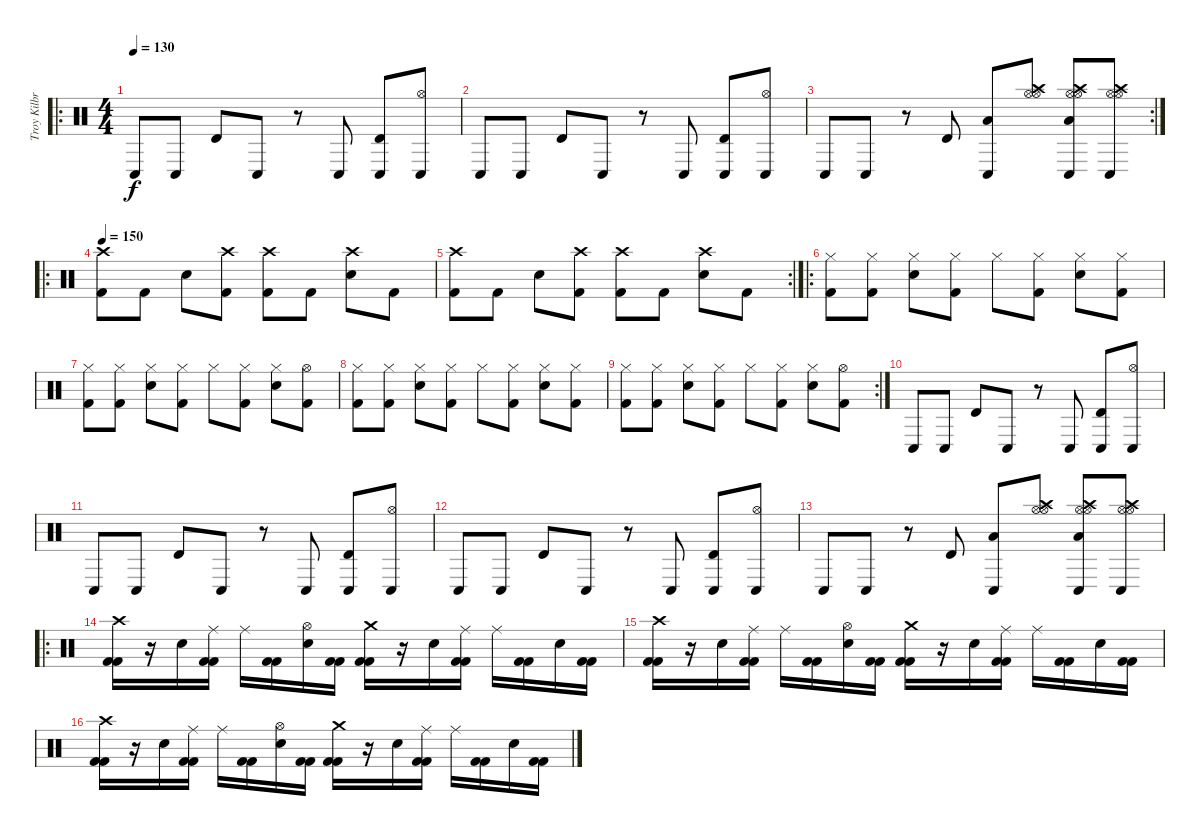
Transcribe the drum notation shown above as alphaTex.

\track ("Troy Kilbride" "Troy Kilbr") {instrument percussion}
\staff {score}
\articulation defaults
\ro
\ts (4 4)
\tempo 130
\clef neutral
\ks c "Conga low (hit)".8{dy f} "Conga low (hit)".8 "Timbale high (hit)".8 "Conga low (hit)".8
r.8 "Conga low (hit)".8 ("Conga low (hit)" "Timbale high (hit)").8 ("Conga low (hit)" "Hi-Hat (open)").8 |
"Conga low (hit)".8 "Conga low (hit)".8 "Timbale high (hit)".8 "Conga low (hit)".8 r.8 "Conga low (hit)".8 ("Conga low (hit)" "Timbale high (hit)").8 ("Conga low (hit)" "Hi-Hat (open)").8 |
\rc 2 "Conga low (hit)".8 "Conga low (hit)".8
r.8 "Timbale high (hit)".8 ("Conga low (hit)" "Low Tom (hit)").8 ("Hi-Hat (open)" "Crash high (hit)" "Hi-Hat (open)").8 ("Conga low (hit)" "Low Tom (hit)" "Crash high (hit)" "Hi-Hat (open)" "Hi-Hat (open)").8 ("Conga low (hit)" "Crash high (hit)" "Hi-Hat (open)" "Hi-Hat (open)").8 |
\ro
\tempo 150
("Kick (hit) 2" "Crash high (hit)").8 "Kick (hit) 2".8 "Snare (hit) 2".8 ("Kick (hit) 2" "Crash high (hit)").8 ("Kick (hit) 2" "Crash high (hit)").8 "Kick (hit) 2".8 ("Snare (hit) 2" "Crash high (hit)").8 "Kick (hit) 2".8 |
\rc 2
("Kick (hit) 2" "Crash high (hit)").8 "Kick (hit) 2".8 "Snare (hit) 2".8 ("Kick (hit) 2" "Crash high (hit)").8 ("Kick (hit) 2" "Crash high (hit)").8 "Kick (hit) 2".8 ("Snare (hit) 2" "Crash high (hit)").8 "Kick (hit) 2".8 |
\ro
("Kick (hit) 2" "Hi-Hat (closed)").8 ("Kick (hit) 2" "Hi-Hat (closed)").8 ("Snare (hit) 2" "Hi-Hat (closed)").8 ("Kick (hit) 2" "Hi-Hat (closed)").8 "Hi-Hat (closed)".8 ("Kick (hit) 2" "Hi-Hat (closed)").8 ("Snare (hit) 2" "Hi-Hat (closed)").8 ("Kick (hit) 2" "Hi-Hat (closed)").8 |
("Kick (hit) 2" "Hi-Hat (closed)").8 ("Kick (hit) 2" "Hi-Hat (closed)").8 ("Snare (hit) 2" "Hi-Hat (closed)").8 ("Kick (hit) 2" "Hi-Hat (closed)").8 "Hi-Hat (closed)".8 ("Kick (hit) 2" "Hi-Hat (closed)").8 ("Snare (hit) 2" "Hi-Hat (closed)").8 ("Kick (hit) 2" "Hi-Hat (open)").8 |
("Kick (hit) 2" "Hi-Hat (closed)").8 ("Kick (hit) 2" "Hi-Hat (closed)").8 ("Snare (hit) 2" "Hi-Hat (closed)").8 ("Kick (hit) 2" "Hi-Hat (closed)").8 "Hi-Hat (closed)".8 ("Kick (hit) 2" "Hi-Hat (closed)").8 ("Snare (hit) 2" "Hi-Hat (closed)").8 ("Kick (hit) 2" "Hi-Hat (closed)").8 |
\rc 2
("Kick (hit) 2" "Hi-Hat (closed)").8 ("Kick (hit) 2" "Hi-Hat (closed)").8 ("Snare (hit) 2" "Hi-Hat (closed)").8 ("Kick (hit) 2" "Hi-Hat (closed)").8 "Hi-Hat (closed)".8 ("Kick (hit) 2" "Hi-Hat (closed)").8 ("Snare (hit) 2" "Hi-Hat (closed)").8 ("Kick (hit) 2" "Hi-Hat (open)").8 |
"Conga low (hit)".8 "Conga low (hit)".8 "Timbale high (hit)".8 "Conga low (hit)".8 r.8 "Conga low (hit)".8 ("Conga low (hit)" "Timbale high (hit)").8 ("Conga low (hit)" "Hi-Hat (open)").8 |
"Conga low (hit)".8 "Conga low (hit)".8 "Timbale high (hit)".8 "Conga low (hit)".8 r.8 "Conga low (hit)".8 ("Conga low (hit)" "Timbale high (hit)").8 ("Conga low (hit)" "Hi-Hat (open)").8 |
"Conga low (hit)".8 "Conga low (hit)".8 "Timbale high (hit)".8 "Conga low (hit)".8 r.8 "Conga low (hit)".8 ("Conga low (hit)" "Timbale high (hit)").8 ("Conga low (hit)" "Hi-Hat (open)").8 |
"Conga low (hit)".8 "Conga low (hit)".8 r.8 "Timbale high (hit)".8 ("Conga low (hit)" "Low Tom (hit)").8 ("Hi-Hat (open)" "Crash high (hit)" "Hi-Hat (open)").8 ("Conga low (hit)" "Low Tom (hit)" "Crash high (hit)" "Hi-Hat (open)" "Hi-Hat (open)").8 ("Conga low (hit)" "Crash high (hit)" "Hi-Hat (open)" "Hi-Hat (open)").8 |
\ro
("Crash high (hit)" "Kick (hit) 2" "Kick (hit) 2").16 r.16 "Electric Snare (hit)".16 ("Ride (middle)" "Kick (hit) 2" "Kick (hit) 2").16 "Ride (middle)".16 ("Kick (hit) 2" "Kick (hit) 2").16 ("Hi-Hat (open)" "Electric Snare (hit)").16 ("Kick (hit) 2" "Kick (hit) 2").16 ("Crash medium (hit)" "Kick (hit) 2" "Kick (hit) 2").16 r.16 "Electric Snare (hit)".16 ("Ride (middle)" "Kick (hit) 2" "Kick (hit) 2").16 "Ride (middle)".16 ("Kick (hit) 2" "Kick (hit) 2").16 "Electric Snare (hit)".16 ("Kick (hit) 2" "Kick (hit) 2").16 |
("Crash high (hit)" "Kick (hit) 2" "Kick (hit) 2").16 r.16 "Electric Snare (hit)".16 ("Ride (middle)" "Kick (hit) 2" "Kick (hit) 2").16 "Ride (middle)".16 ("Kick (hit) 2" "Kick (hit) 2").16 ("Hi-Hat (open)" "Electric Snare (hit)").16 ("Kick (hit) 2" "Kick (hit) 2").16 ("Crash medium (hit)" "Kick (hit) 2" "Kick (hit) 2").16 r.16 "Electric Snare (hit)".16 ("Ride (middle)" "Kick (hit) 2" "Kick (hit) 2").16 "Ride (middle)".16 ("Kick (hit) 2" "Kick (hit) 2").16 "Electric Snare (hit)".16 ("Kick (hit) 2" "Kick (hit) 2").16 |
("Crash high (hit)" "Kick (hit) 2" "Kick (hit) 2").16 r.16 "Electric Snare (hit)".16 ("Ride (middle)" "Kick (hit) 2" "Kick (hit) 2").16 "Ride (middle)".16 ("Kick (hit) 2" "Kick (hit) 2").16 ("Hi-Hat (open)" "Electric Snare (hit)").16 ("Kick (hit) 2" "Kick (hit) 2").16 ("Crash medium (hit)" "Kick (hit) 2" "Kick (hit) 2").16 r.16 "Electric Snare (hit)".16 ("Ride (middle)" "Kick (hit) 2" "Kick (hit) 2").16 "Ride (middle)".16 ("Kick (hit) 2" "Kick (hit) 2").16 "Electric Snare (hit)".16 ("Kick (hit) 2" "Kick (hit) 2").16
